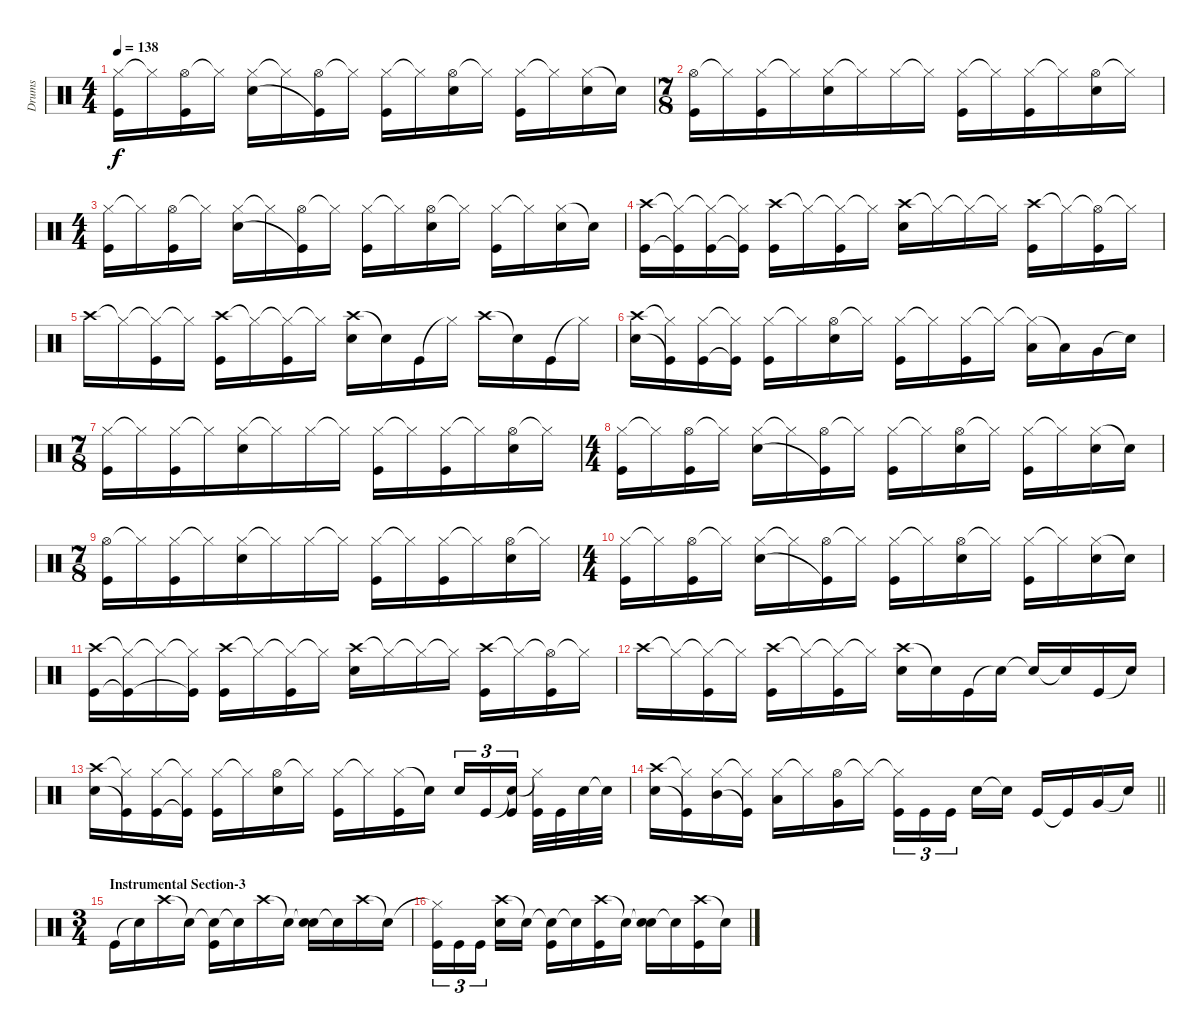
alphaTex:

\track ("Drums" "Drums") {instrument percussion}
\staff {score}
\articulation defaults
\ts (4 4)
\tempo 138
\clef neutral
\ks c
("Hi-Hat (closed)" "Kick (hit)").16{dy f} "Hi-Hat (closed)"{t}.16 ("Hi-Hat (open)" "Kick (hit)").16 "Hi-Hat (closed)"{t}.16 ("Hi-Hat (closed)" "Electric Snare (hit)").16 "Hi-Hat (closed)"{t}.16 ("Hi-Hat (open)" "Kick (hit)"{t}).16 "Hi-Hat (closed)"{t}.16 ("Hi-Hat (closed)" "Kick (hit)").16 "Hi-Hat (closed)"{t}.16 ("Hi-Hat (open)" "Electric Snare (hit)").16 "Hi-Hat (closed)"{t}.16 ("Hi-Hat (closed)" "Kick (hit)").16 "Hi-Hat (closed)"{t}.16 ("Hi-Hat (closed)" "Electric Snare (hit)").16 "Snare (hit)"{t}.16 |
\ts (7 8)
("Hi-Hat (open)" "Kick (hit)").16 "Hi-Hat (closed)"{t}.16 ("Hi-Hat (closed)" "Kick (hit)").16 "Hi-Hat (closed)"{t}.16 ("Hi-Hat (closed)" "Electric Snare (hit)").16 "Hi-Hat (closed)"{t}.16 "Hi-Hat (closed)".16 "Hi-Hat (closed)"{t}.16 ("Hi-Hat (closed)" "Kick (hit)").16 "Hi-Hat (closed)"{t}.16 ("Hi-Hat (closed)" "Kick (hit)").16 "Hi-Hat (closed)"{t}.16 ("Hi-Hat (open)" "Electric Snare (hit)").16 "Hi-Hat (closed)"{t}.16 |
\ts (4 4)
("Hi-Hat (closed)" "Kick (hit)").16 "Hi-Hat (closed)"{t}.16 ("Hi-Hat (open)" "Kick (hit)").16 "Hi-Hat (closed)"{t}.16 ("Hi-Hat (closed)" "Electric Snare (hit)").16 "Hi-Hat (closed)"{t}.16 ("Hi-Hat (open)" "Kick (hit)"{t}).16 "Hi-Hat (closed)"{t}.16 ("Hi-Hat (closed)" "Kick (hit)").16 "Hi-Hat (closed)"{t}.16 ("Hi-Hat (open)" "Electric Snare (hit)").16 "Hi-Hat (closed)"{t}.16 ("Hi-Hat (closed)" "Kick (hit)").16 "Hi-Hat (closed)"{t}.16 ("Hi-Hat (closed)" "Electric Snare (hit)").16 "Snare (hit)"{t}.16 |
("Crash high (hit)" "Kick (hit)").16 ("Hi-Hat (closed)"{t} "Kick (hit)"{t}).16 ("Hi-Hat (closed)"{t} "Kick (hit)").16 ("Hi-Hat (closed)"{t} "Kick (hit)"{t}).16 ("Crash high (hit)" "Kick (hit)").16 "Hi-Hat (closed)"{t}.16 ("Hi-Hat (closed)"{t} "Kick (hit)").16 "Hi-Hat (closed)"{t}.16 ("Crash high (hit)" "Electric Snare (hit)").16 "Hi-Hat (closed)"{t}.16 "Hi-Hat (closed)"{t}.16 "Hi-Hat (closed)"{t}.16 ("Crash high (hit)" "Kick (hit)").16 "Hi-Hat (closed)"{t}.16 ("Hi-Hat (open)"{t} "Kick (hit)").16 "Hi-Hat (closed)"{t}.16 |
"Crash high (hit)".16 "Hi-Hat (closed)"{t}.16 ("Hi-Hat (closed)"{t} "Kick (hit)").16 "Hi-Hat (closed)"{t}.16 ("Crash high (hit)" "Kick (hit)").16 "Hi-Hat (closed)"{t}.16 ("Hi-Hat (closed)"{t} "Kick (hit)").16 "Hi-Hat (closed)"{t}.16 ("Crash high (hit)" "Electric Snare (hit)").16 "Snare (hit)"{t}.16 "Kick (hit)".16 "Hi-Hat (closed)"{t}.16 "Crash high (hit)".16 "Snare (hit)"{t}.16 "Kick (hit)".16 "Hi-Hat (closed)"{t}.16 |
("Crash high (hit)" "Electric Snare (hit)").16 ("Hi-Hat (closed)"{t} "Kick (hit)"{t}).16 ("Hi-Hat (closed)" "Kick (hit)").16 ("Hi-Hat (closed)"{t} "Kick (hit)"{t}).16 ("Hi-Hat (closed)" "Kick (hit)").16 "Hi-Hat (closed)"{t}.16 ("Hi-Hat (open)" "Electric Snare (hit)").16 "Hi-Hat (closed)"{t}.16 ("Hi-Hat (closed)" "Kick (hit)").16 "Hi-Hat (closed)"{t}.16 ("Hi-Hat (closed)" "Kick (hit)").16 "Hi-Hat (closed)"{t}.16 ("Hi-Hat (closed)"{t} "Low Floor Tom (hit)").16 "Low Tom (hit)"{t}.16 "Very Low Tom (hit)".16 "Snare (hit)"{t}.16 |
\ts (7 8)
("Hi-Hat (closed)" "Kick (hit)").16 "Hi-Hat (closed)"{t}.16 ("Hi-Hat (closed)" "Kick (hit)").16 "Hi-Hat (closed)"{t}.16 ("Hi-Hat (closed)" "Electric Snare (hit)").16 "Hi-Hat (closed)"{t}.16 "Hi-Hat (closed)".16 "Hi-Hat (closed)"{t}.16 ("Hi-Hat (closed)" "Kick (hit)").16 "Hi-Hat (closed)"{t}.16 ("Hi-Hat (closed)" "Kick (hit)").16 "Hi-Hat (closed)"{t}.16 ("Hi-Hat (open)" "Electric Snare (hit)").16 "Hi-Hat (closed)"{t}.16 |
\ts (4 4)
("Hi-Hat (closed)" "Kick (hit)").16 "Hi-Hat (closed)"{t}.16 ("Hi-Hat (open)" "Kick (hit)").16 "Hi-Hat (closed)"{t}.16 ("Hi-Hat (closed)" "Electric Snare (hit)").16 "Hi-Hat (closed)"{t}.16 ("Hi-Hat (open)" "Kick (hit)"{t}).16 "Hi-Hat (closed)"{t}.16 ("Hi-Hat (closed)" "Kick (hit)").16 "Hi-Hat (closed)"{t}.16 ("Hi-Hat (open)" "Electric Snare (hit)").16 "Hi-Hat (closed)"{t}.16 ("Hi-Hat (closed)" "Kick (hit)").16 "Hi-Hat (closed)"{t}.16 ("Hi-Hat (closed)" "Electric Snare (hit)").16 "Snare (hit)"{t}.16 |
\ts (7 8)
("Hi-Hat (open)" "Kick (hit)").16 "Hi-Hat (closed)"{t}.16 ("Hi-Hat (closed)" "Kick (hit)").16 "Hi-Hat (closed)"{t}.16 ("Hi-Hat (closed)" "Electric Snare (hit)").16 "Hi-Hat (closed)"{t}.16 "Hi-Hat (closed)".16 "Hi-Hat (closed)"{t}.16 ("Hi-Hat (closed)" "Kick (hit)").16 "Hi-Hat (closed)"{t}.16 ("Hi-Hat (closed)" "Kick (hit)").16 "Hi-Hat (closed)"{t}.16 ("Hi-Hat (open)" "Electric Snare (hit)").16 "Hi-Hat (closed)"{t}.16 |
\ts (4 4)
("Hi-Hat (closed)" "Kick (hit)").16 "Hi-Hat (closed)"{t}.16 ("Hi-Hat (open)" "Kick (hit)").16 "Hi-Hat (closed)"{t}.16 ("Hi-Hat (closed)" "Electric Snare (hit)").16 "Hi-Hat (closed)"{t}.16 ("Hi-Hat (open)" "Kick (hit)"{t}).16 "Hi-Hat (closed)"{t}.16 ("Hi-Hat (closed)" "Kick (hit)").16 "Hi-Hat (closed)"{t}.16 ("Hi-Hat (open)" "Electric Snare (hit)").16 "Hi-Hat (closed)"{t}.16 ("Hi-Hat (closed)" "Kick (hit)").16 "Hi-Hat (closed)"{t}.16 ("Hi-Hat (closed)" "Electric Snare (hit)").16 "Snare (hit)"{t}.16 |
("Crash high (hit)" "Kick (hit)").16 ("Hi-Hat (closed)"{t} "Kick (hit)"{t}).16 "Hi-Hat (closed)"{t}.16 ("Hi-Hat (closed)"{t} "Kick (hit)"{t}).16 ("Crash high (hit)" "Kick (hit)").16 "Hi-Hat (closed)"{t}.16 ("Hi-Hat (closed)"{t} "Kick (hit)").16 "Hi-Hat (closed)"{t}.16 ("Crash high (hit)" "Electric Snare (hit)").16 "Hi-Hat (closed)"{t}.16 "Hi-Hat (closed)"{t}.16 "Hi-Hat (closed)"{t}.16 ("Crash high (hit)" "Kick (hit)").16 "Hi-Hat (closed)"{t}.16 ("Hi-Hat (open)"{t} "Kick (hit)").16 "Hi-Hat (closed)"{t}.16 |
"Crash high (hit)".16 "Hi-Hat (closed)"{t}.16 ("Hi-Hat (closed)"{t} "Kick (hit)").16 "Hi-Hat (closed)"{t}.16 ("Crash high (hit)" "Kick (hit)").16 "Hi-Hat (closed)"{t}.16 ("Hi-Hat (closed)"{t} "Kick (hit)").16 "Hi-Hat (closed)"{t}.16 ("Crash high (hit)" "Electric Snare (hit)").16 "Snare (hit)"{t}.16 "Kick (hit)".16 "Snare (hit)"{t}.16 "Snare (hit)"{t}.16 "Snare (hit)"{t}.16 "Kick (hit)".16 "Snare (hit)"{t}.16 |
("Crash high (hit)" "Electric Snare (hit)").16 ("Hi-Hat (closed)"{t} "Kick (hit)"{t}).16 ("Hi-Hat (closed)" "Kick (hit)").16 ("Hi-Hat (closed)"{t} "Kick (hit)"{t}).16 ("Hi-Hat (closed)" "Kick (hit)").16 "Hi-Hat (closed)"{t}.16 ("Hi-Hat (open)" "Electric Snare (hit)").16 "Hi-Hat (closed)"{t}.16 ("Hi-Hat (closed)" "Kick (hit)").16 "Hi-Hat (closed)"{t}.16 ("Hi-Hat (closed)" "Kick (hit)").16 "Snare (hit)"{t}.16 "Electric Snare (hit)".16{tu (3 2)} "Kick (hit)".16{tu (3 2)} ("Snare (hit)"{t} "Kick (hit)").16{tu (3 2)} ("Hi-Hat (closed)"{t} "Kick (hit)").32 "Kick (hit)".32 "Electric Snare (hit)".32 "Snare (hit)"{t}.32 |
\barLineRight lightlight
("Crash high (hit)" "Electric Snare (hit)").16 ("Hi-Hat (closed)"{t} "Kick (hit)"{t}).16 ("Hi-Hat (closed)" "Mid Tom (hit)").16 ("Hi-Hat (closed)"{t} "Kick (hit)"{t}).16 ("Hi-Hat (closed)" "Low Tom (hit)").16 "Hi-Hat (closed)"{t}.16 ("Hi-Hat (open)" "Very Low Tom (hit)").16 "Hi-Hat (closed)"{t}.16 ("Hi-Hat (closed)"{t} "Kick (hit)").16{tu (3 2)} "Kick (hit)".16{tu (3 2)} "Kick (hit)".16{tu (3 2)} "Electric Snare (hit)".16 "Snare (hit)"{t}.16 "Kick (hit)".16 "Kick (hit)"{t}.16 "Very Low Tom (hit)".16 "Snare (hit)"{t}.16 |
\ts (3 4)
\section ("" "Instrumental Section-3")
"Kick (hit)".16 "Snare (hit)"{t}.16 "Crash high (hit)".16 "Snare (hit)"{t}.16 ("Snare (hit)"{t} "Kick (hit)").16 "Snare (hit)"{t}.16 "Crash high (hit)".16 "Snare (hit)"{t}.16 ("Snare (hit)"{t} "Electric Snare (hit)").16 "Snare (hit)"{t}.16 "Crash high (hit)".16 "Snare (hit)"{t}.16 |
("Hi-Hat (closed)"{t} "Kick (hit)").16{tu (3 2)} "Kick (hit)".16{tu (3 2)} "Kick (hit)".16{tu (3 2)} ("Crash high (hit)" "Electric Snare (hit)").16 "Snare (hit)"{t}.16 ("Snare (hit)"{t} "Kick (hit)").16 "Snare (hit)"{t}.16 ("Crash high (hit)" "Kick (hit)").16 "Snare (hit)"{t}.16 ("Snare (hit)"{t} "Electric Snare (hit)").16 "Snare (hit)"{t}.16 ("Crash high (hit)" "Kick (hit)").16 "Snare (hit)"{t}.16
